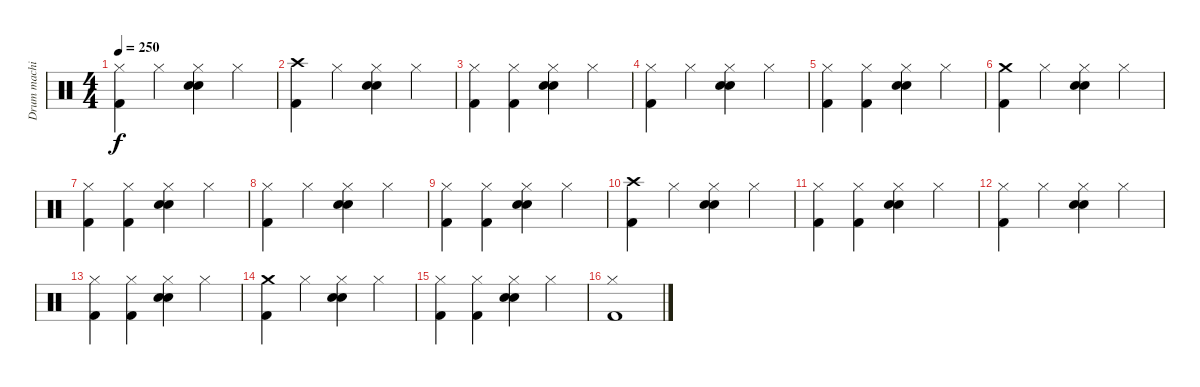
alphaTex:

\track ("Drum machine" "Drum machi") {instrument percussion}
\staff {score}
\articulation defaults
\ts (4 4)
\tempo 250
\clef neutral
\ks c
("Hi-Hat (closed)" "Kick (hit) 2").4{dy f} "Hi-Hat (closed)".4 ("Hi-Hat (closed)" "Electric Snare (hit)" "Snare (hit) 2").4 "Hi-Hat (closed)".4 |
("Crash high (hit)" "Kick (hit) 2").4 "Hi-Hat (closed)".4 ("Hi-Hat (closed)" "Electric Snare (hit)" "Snare (hit) 2").4 "Hi-Hat (closed)".4 |
("Hi-Hat (closed)" "Kick (hit) 2").4 ("Hi-Hat (closed)" "Kick (hit) 2").4 ("Hi-Hat (closed)" "Electric Snare (hit)" "Snare (hit) 2").4 "Hi-Hat (closed)".4 |
("Hi-Hat (closed)" "Kick (hit) 2").4 "Hi-Hat (closed)".4 ("Hi-Hat (closed)" "Electric Snare (hit)" "Snare (hit) 2").4 "Hi-Hat (closed)".4 |
("Hi-Hat (closed)" "Kick (hit) 2").4 ("Hi-Hat (closed)" "Kick (hit) 2").4 ("Hi-Hat (closed)" "Electric Snare (hit)" "Snare (hit) 2").4 "Hi-Hat (closed)".4 |
("Crash medium (hit)" "Kick (hit) 2").4 "Hi-Hat (closed)".4 ("Hi-Hat (closed)" "Electric Snare (hit)" "Snare (hit) 2").4 "Hi-Hat (closed)".4 |
("Hi-Hat (closed)" "Kick (hit) 2").4 ("Hi-Hat (closed)" "Kick (hit) 2").4 ("Hi-Hat (closed)" "Electric Snare (hit)" "Snare (hit) 2").4 "Hi-Hat (closed)".4 |
("Hi-Hat (closed)" "Kick (hit) 2").4 "Hi-Hat (closed)".4 ("Hi-Hat (closed)" "Electric Snare (hit)" "Snare (hit) 2").4 "Hi-Hat (closed)".4 |
("Hi-Hat (closed)" "Kick (hit) 2").4 ("Hi-Hat (closed)" "Kick (hit) 2").4 ("Hi-Hat (closed)" "Electric Snare (hit)" "Snare (hit) 2").4 "Hi-Hat (closed)".4 |
("Crash high (hit)" "Kick (hit) 2").4 "Hi-Hat (closed)".4 ("Hi-Hat (closed)" "Electric Snare (hit)" "Snare (hit) 2").4 "Hi-Hat (closed)".4 |
("Hi-Hat (closed)" "Kick (hit) 2").4 ("Hi-Hat (closed)" "Kick (hit) 2").4 ("Hi-Hat (closed)" "Electric Snare (hit)" "Snare (hit) 2").4 "Hi-Hat (closed)".4 |
("Hi-Hat (closed)" "Kick (hit) 2").4 "Hi-Hat (closed)".4 ("Hi-Hat (closed)" "Electric Snare (hit)" "Snare (hit) 2").4 "Hi-Hat (closed)".4 |
("Hi-Hat (closed)" "Kick (hit) 2").4 ("Hi-Hat (closed)" "Kick (hit) 2").4 ("Hi-Hat (closed)" "Electric Snare (hit)" "Snare (hit) 2").4 "Hi-Hat (closed)".4 |
("Crash medium (hit)" "Kick (hit) 2").4 "Hi-Hat (closed)".4 ("Hi-Hat (closed)" "Electric Snare (hit)" "Snare (hit) 2").4 "Hi-Hat (closed)".4 |
("Hi-Hat (closed)" "Kick (hit) 2").4 ("Hi-Hat (closed)" "Kick (hit) 2").4 ("Hi-Hat (closed)" "Electric Snare (hit)" "Snare (hit) 2").4 "Hi-Hat (closed)".4 |
("Hi-Hat (closed)" "Kick (hit) 2").1
